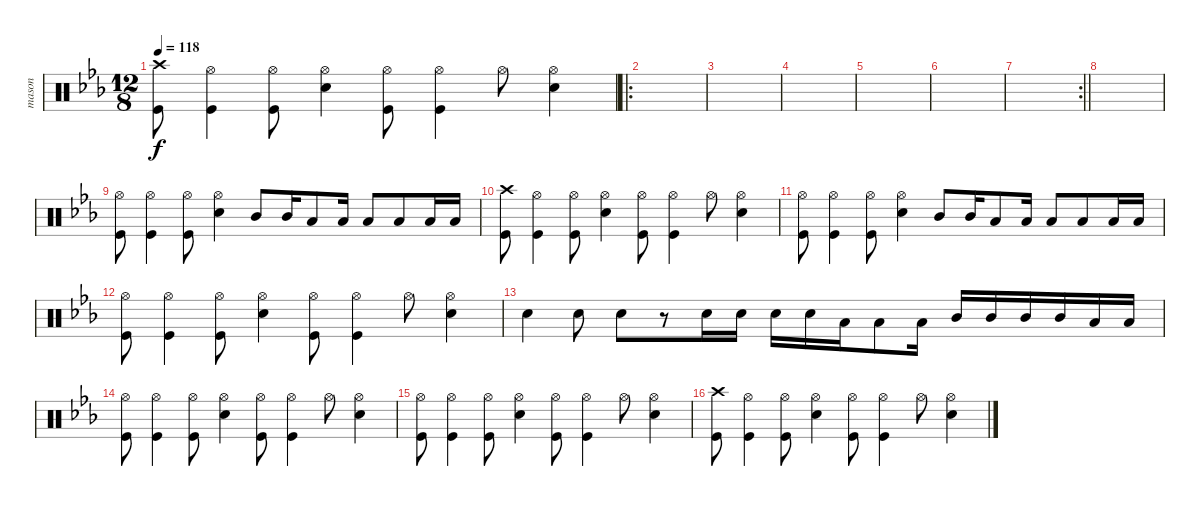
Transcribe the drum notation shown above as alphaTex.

\track ("mason" "mason") {instrument percussion}
\staff {score}
\articulation defaults
\ts (12 8)
\tempo 118
\clef neutral
\ks cminor
("Kick (hit)" "Crash high (hit)").8{dy f} ("Kick (hit)" "Hi-Hat (open)").4 ("Kick (hit)" "Hi-Hat (open)").8 ("Snare (hit) 2" "Hi-Hat (open)").4 ("Kick (hit)" "Hi-Hat (open)").8 ("Kick (hit)" "Hi-Hat (open)").4 "Hi-Hat (open)".8 ("Snare (hit) 2" "Hi-Hat (open)").4 |
\ro
|
|
|
|
|
\rc 2
\barLineRight lightlight
|
|
("Kick (hit)" "Hi-Hat (open)").8 ("Kick (hit)" "Hi-Hat (open)").4 ("Kick (hit)" "Hi-Hat (open)").8 ("Snare (hit) 2" "Hi-Hat (open)").4 "Mid Tom (hit)".8 "Mid Tom (hit)".16 "Low Tom (hit)".8 "Low Tom (hit)".16 "Low Tom (hit)".8 "Low Floor Tom (hit)".8 "Low Floor Tom (hit)".16 "Low Floor Tom (hit)".16 |
("Kick (hit)" "Crash high (hit)").8 ("Kick (hit)" "Hi-Hat (open)").4 ("Kick (hit)" "Hi-Hat (open)").8 ("Snare (hit) 2" "Hi-Hat (open)").4 ("Kick (hit)" "Hi-Hat (open)").8 ("Kick (hit)" "Hi-Hat (open)").4 "Hi-Hat (open)".8 ("Snare (hit) 2" "Hi-Hat (open)").4 |
("Kick (hit)" "Hi-Hat (open)").8 ("Kick (hit)" "Hi-Hat (open)").4 ("Kick (hit)" "Hi-Hat (open)").8 ("Snare (hit) 2" "Hi-Hat (open)").4 "Mid Tom (hit)".8 "Mid Tom (hit)".16 "Low Tom (hit)".8 "Low Tom (hit)".16 "Low Tom (hit)".8 "Low Floor Tom (hit)".8 "Low Floor Tom (hit)".16 "Low Floor Tom (hit)".16 |
("Kick (hit)" "Hi-Hat (open)").8 ("Kick (hit)" "Hi-Hat (open)").4 ("Kick (hit)" "Hi-Hat (open)").8 ("Snare (hit) 2" "Hi-Hat (open)").4 ("Kick (hit)" "Hi-Hat (open)").8 ("Kick (hit)" "Hi-Hat (open)").4 "Hi-Hat (open)".8 ("Snare (hit) 2" "Hi-Hat (open)").4 |
"Snare (hit) 2".4 "Snare (hit) 2".8 "Snare (hit) 2".8 r.8 "Snare (hit) 2".16 "Snare (hit) 2".16 "Snare (hit) 2".16 "Snare (hit) 2".16 "Low Tom (hit)".16 "Low Tom (hit)".8 "Low Tom (hit)".16 "Mid Tom (hit)".16 "Mid Tom (hit)".16 "Mid Tom (hit)".16 "Mid Tom (hit)".16 "Low Floor Tom (hit)".16 "Low Floor Tom (hit)".16 |
("Kick (hit)" "Hi-Hat (open)").8 ("Kick (hit)" "Hi-Hat (open)").4 ("Kick (hit)" "Hi-Hat (open)").8 ("Snare (hit) 2" "Hi-Hat (open)").4 ("Kick (hit)" "Hi-Hat (open)").8 ("Kick (hit)" "Hi-Hat (open)").4 "Hi-Hat (open)".8 ("Snare (hit) 2" "Hi-Hat (open)").4 |
("Kick (hit)" "Hi-Hat (open)").8 ("Kick (hit)" "Hi-Hat (open)").4 ("Kick (hit)" "Hi-Hat (open)").8 ("Snare (hit) 2" "Hi-Hat (open)").4 ("Kick (hit)" "Hi-Hat (open)").8 ("Kick (hit)" "Hi-Hat (open)").4 "Hi-Hat (open)".8 ("Snare (hit) 2" "Hi-Hat (open)").4 |
("Kick (hit)" "Crash high (hit)").8 ("Kick (hit)" "Hi-Hat (open)").4 ("Kick (hit)" "Hi-Hat (open)").8 ("Snare (hit) 2" "Hi-Hat (open)").4 ("Kick (hit)" "Hi-Hat (open)").8 ("Kick (hit)" "Hi-Hat (open)").4 "Hi-Hat (open)".8 ("Snare (hit) 2" "Hi-Hat (open)").4
